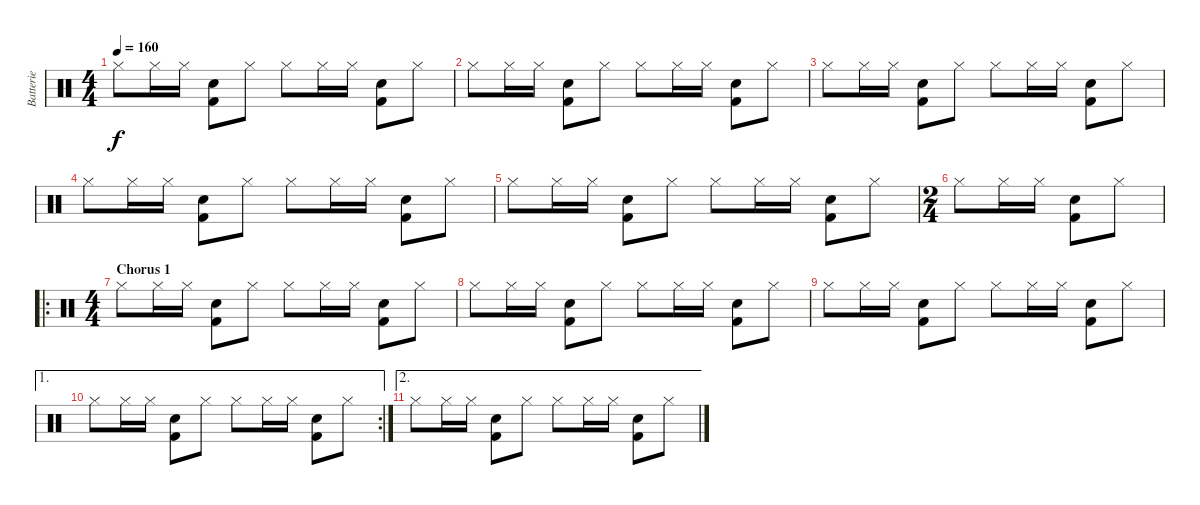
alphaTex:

\track ("Batterie" "Batterie") {instrument percussion}
\staff {score}
\articulation defaults
\ts (4 4)
\tempo 160
\clef neutral
\ks c "Hi-Hat (closed)".8{dy f} "Hi-Hat (closed)".16 "Hi-Hat (closed)".16
("Snare (hit) 2" "Kick (hit) 2").8 "Hi-Hat (closed)".8 "Hi-Hat (closed)".8 "Hi-Hat (closed)".16 "Hi-Hat (closed)".16 ("Snare (hit) 2" "Kick (hit) 2").8 "Hi-Hat (closed)".8 |
"Hi-Hat (closed)".8 "Hi-Hat (closed)".16 "Hi-Hat (closed)".16 ("Snare (hit) 2" "Kick (hit) 2").8 "Hi-Hat (closed)".8 "Hi-Hat (closed)".8 "Hi-Hat (closed)".16 "Hi-Hat (closed)".16 ("Snare (hit) 2" "Kick (hit) 2").8 "Hi-Hat (closed)".8 |
"Hi-Hat (closed)".8 "Hi-Hat (closed)".16 "Hi-Hat (closed)".16 ("Snare (hit) 2" "Kick (hit) 2").8 "Hi-Hat (closed)".8 "Hi-Hat (closed)".8 "Hi-Hat (closed)".16 "Hi-Hat (closed)".16 ("Snare (hit) 2" "Kick (hit) 2").8 "Hi-Hat (closed)".8 |
"Hi-Hat (closed)".8 "Hi-Hat (closed)".16 "Hi-Hat (closed)".16 ("Snare (hit) 2" "Kick (hit) 2").8 "Hi-Hat (closed)".8 "Hi-Hat (closed)".8 "Hi-Hat (closed)".16 "Hi-Hat (closed)".16 ("Snare (hit) 2" "Kick (hit) 2").8 "Hi-Hat (closed)".8 |
"Hi-Hat (closed)".8 "Hi-Hat (closed)".16 "Hi-Hat (closed)".16 ("Snare (hit) 2" "Kick (hit) 2").8 "Hi-Hat (closed)".8 "Hi-Hat (closed)".8 "Hi-Hat (closed)".16 "Hi-Hat (closed)".16 ("Snare (hit) 2" "Kick (hit) 2").8 "Hi-Hat (closed)".8 |
\ts (2 4)
"Hi-Hat (closed)".8 "Hi-Hat (closed)".16 "Hi-Hat (closed)".16 ("Snare (hit) 2" "Kick (hit) 2").8 "Hi-Hat (closed)".8 |
\ro
\ts (4 4)
\section ("" "Chorus 1")
"Hi-Hat (closed)".8 "Hi-Hat (closed)".16 "Hi-Hat (closed)".16 ("Snare (hit) 2" "Kick (hit) 2").8 "Hi-Hat (closed)".8 "Hi-Hat (closed)".8 "Hi-Hat (closed)".16 "Hi-Hat (closed)".16 ("Snare (hit) 2" "Kick (hit) 2").8 "Hi-Hat (closed)".8 |
"Hi-Hat (closed)".8 "Hi-Hat (closed)".16 "Hi-Hat (closed)".16 ("Snare (hit) 2" "Kick (hit) 2").8 "Hi-Hat (closed)".8 "Hi-Hat (closed)".8 "Hi-Hat (closed)".16 "Hi-Hat (closed)".16 ("Snare (hit) 2" "Kick (hit) 2").8 "Hi-Hat (closed)".8 |
"Hi-Hat (closed)".8 "Hi-Hat (closed)".16 "Hi-Hat (closed)".16 ("Snare (hit) 2" "Kick (hit) 2").8 "Hi-Hat (closed)".8 "Hi-Hat (closed)".8 "Hi-Hat (closed)".16 "Hi-Hat (closed)".16 ("Snare (hit) 2" "Kick (hit) 2").8 "Hi-Hat (closed)".8 |
\ae 1
\rc 2 "Hi-Hat (closed)".8 "Hi-Hat (closed)".16 "Hi-Hat (closed)".16
("Snare (hit) 2" "Kick (hit) 2").8 "Hi-Hat (closed)".8 "Hi-Hat (closed)".8 "Hi-Hat (closed)".16 "Hi-Hat (closed)".16 ("Snare (hit) 2" "Kick (hit) 2").8 "Hi-Hat (closed)".8 |
\ae 2 "Hi-Hat (closed)".8 "Hi-Hat (closed)".16 "Hi-Hat (closed)".16
("Snare (hit) 2" "Kick (hit) 2").8 "Hi-Hat (closed)".8 "Hi-Hat (closed)".8 "Hi-Hat (closed)".16 "Hi-Hat (closed)".16 ("Snare (hit) 2" "Kick (hit) 2").8 "Hi-Hat (closed)".8
